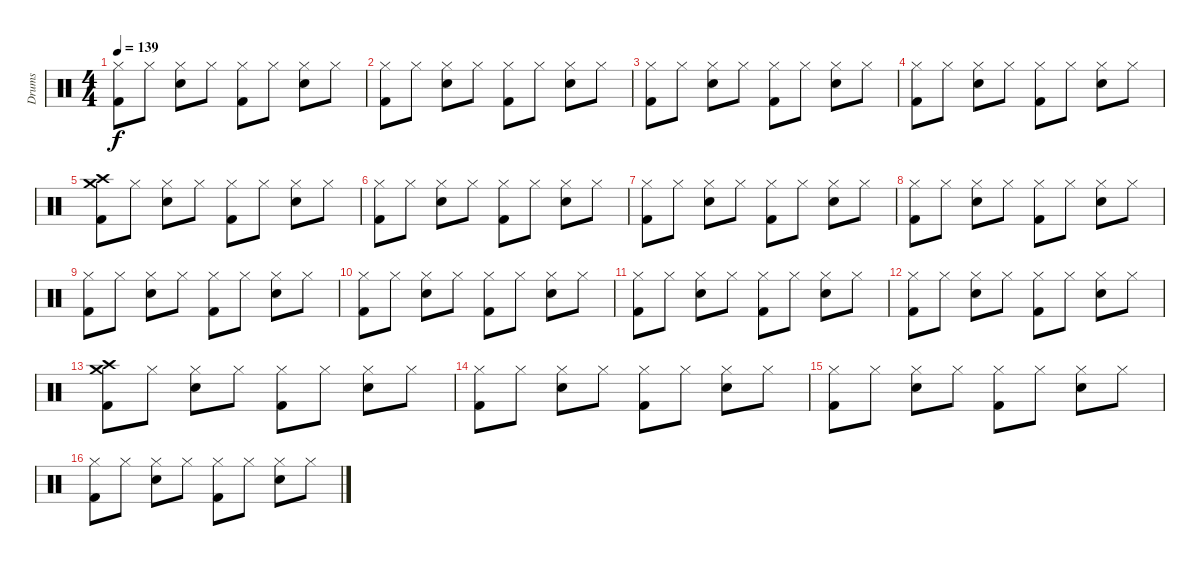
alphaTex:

\track ("Drums" "Drums") {instrument percussion}
\staff {score}
\articulation defaults
\ts (4 4)
\tempo 139
\clef neutral
\ks c
("Hi-Hat (closed)" "Kick (hit) 2").8{dy f} "Hi-Hat (closed)".8 ("Hi-Hat (closed)" "Snare (hit) 2").8 "Hi-Hat (closed)".8 ("Hi-Hat (closed)" "Kick (hit) 2").8 "Hi-Hat (closed)".8 ("Hi-Hat (closed)" "Snare (hit) 2").8 "Hi-Hat (closed)".8 |
("Hi-Hat (closed)" "Kick (hit) 2").8 "Hi-Hat (closed)".8 ("Hi-Hat (closed)" "Snare (hit) 2").8 "Hi-Hat (closed)".8 ("Hi-Hat (closed)" "Kick (hit) 2").8 "Hi-Hat (closed)".8 ("Hi-Hat (closed)" "Snare (hit) 2").8 "Hi-Hat (closed)".8 |
("Hi-Hat (closed)" "Kick (hit) 2").8 "Hi-Hat (closed)".8 ("Hi-Hat (closed)" "Snare (hit) 2").8 "Hi-Hat (closed)".8 ("Hi-Hat (closed)" "Kick (hit) 2").8 "Hi-Hat (closed)".8 ("Hi-Hat (closed)" "Snare (hit) 2").8 "Hi-Hat (closed)".8 |
("Hi-Hat (closed)" "Kick (hit) 2").8 "Hi-Hat (closed)".8 ("Hi-Hat (closed)" "Snare (hit) 2").8 "Hi-Hat (closed)".8 ("Hi-Hat (closed)" "Kick (hit) 2").8 "Hi-Hat (closed)".8 ("Hi-Hat (closed)" "Snare (hit) 2").8 "Hi-Hat (closed)".8 |
("Crash medium (hit)" "Crash high (hit)" "Kick (hit) 2").8 "Hi-Hat (closed)".8 ("Hi-Hat (closed)" "Snare (hit) 2").8 "Hi-Hat (closed)".8 ("Hi-Hat (closed)" "Kick (hit) 2").8 "Hi-Hat (closed)".8 ("Hi-Hat (closed)" "Snare (hit) 2").8 "Hi-Hat (closed)".8 |
("Hi-Hat (closed)" "Kick (hit) 2").8 "Hi-Hat (closed)".8 ("Hi-Hat (closed)" "Snare (hit) 2").8 "Hi-Hat (closed)".8 ("Hi-Hat (closed)" "Kick (hit) 2").8 "Hi-Hat (closed)".8 ("Hi-Hat (closed)" "Snare (hit) 2").8 "Hi-Hat (closed)".8 |
("Hi-Hat (closed)" "Kick (hit) 2").8 "Hi-Hat (closed)".8 ("Hi-Hat (closed)" "Snare (hit) 2").8 "Hi-Hat (closed)".8 ("Hi-Hat (closed)" "Kick (hit) 2").8 "Hi-Hat (closed)".8 ("Hi-Hat (closed)" "Snare (hit) 2").8 "Hi-Hat (closed)".8 |
("Hi-Hat (closed)" "Kick (hit) 2").8 "Hi-Hat (closed)".8 ("Hi-Hat (closed)" "Snare (hit) 2").8 "Hi-Hat (closed)".8 ("Hi-Hat (closed)" "Kick (hit) 2").8 "Hi-Hat (closed)".8 ("Hi-Hat (closed)" "Snare (hit) 2").8 "Hi-Hat (closed)".8 |
("Hi-Hat (closed)" "Kick (hit) 2").8 "Hi-Hat (closed)".8 ("Hi-Hat (closed)" "Snare (hit) 2").8 "Hi-Hat (closed)".8 ("Hi-Hat (closed)" "Kick (hit) 2").8 "Hi-Hat (closed)".8 ("Hi-Hat (closed)" "Snare (hit) 2").8 "Hi-Hat (closed)".8 |
("Hi-Hat (closed)" "Kick (hit) 2").8 "Hi-Hat (closed)".8 ("Hi-Hat (closed)" "Snare (hit) 2").8 "Hi-Hat (closed)".8 ("Hi-Hat (closed)" "Kick (hit) 2").8 "Hi-Hat (closed)".8 ("Hi-Hat (closed)" "Snare (hit) 2").8 "Hi-Hat (closed)".8 |
("Hi-Hat (closed)" "Kick (hit) 2").8 "Hi-Hat (closed)".8 ("Hi-Hat (closed)" "Snare (hit) 2").8 "Hi-Hat (closed)".8 ("Hi-Hat (closed)" "Kick (hit) 2").8 "Hi-Hat (closed)".8 ("Hi-Hat (closed)" "Snare (hit) 2").8 "Hi-Hat (closed)".8 |
("Hi-Hat (closed)" "Kick (hit) 2").8 "Hi-Hat (closed)".8 ("Hi-Hat (closed)" "Snare (hit) 2").8 "Hi-Hat (closed)".8 ("Hi-Hat (closed)" "Kick (hit) 2").8 "Hi-Hat (closed)".8 ("Hi-Hat (closed)" "Snare (hit) 2").8 "Hi-Hat (closed)".8 |
("Crash medium (hit)" "Crash high (hit)" "Kick (hit) 2").8 "Hi-Hat (closed)".8 ("Hi-Hat (closed)" "Snare (hit) 2").8 "Hi-Hat (closed)".8 ("Hi-Hat (closed)" "Kick (hit) 2").8 "Hi-Hat (closed)".8 ("Hi-Hat (closed)" "Snare (hit) 2").8 "Hi-Hat (closed)".8 |
("Hi-Hat (closed)" "Kick (hit) 2").8 "Hi-Hat (closed)".8 ("Hi-Hat (closed)" "Snare (hit) 2").8 "Hi-Hat (closed)".8 ("Hi-Hat (closed)" "Kick (hit) 2").8 "Hi-Hat (closed)".8 ("Hi-Hat (closed)" "Snare (hit) 2").8 "Hi-Hat (closed)".8 |
("Hi-Hat (closed)" "Kick (hit) 2").8 "Hi-Hat (closed)".8 ("Hi-Hat (closed)" "Snare (hit) 2").8 "Hi-Hat (closed)".8 ("Hi-Hat (closed)" "Kick (hit) 2").8 "Hi-Hat (closed)".8 ("Hi-Hat (closed)" "Snare (hit) 2").8 "Hi-Hat (closed)".8 |
("Hi-Hat (closed)" "Kick (hit) 2").8 "Hi-Hat (closed)".8 ("Hi-Hat (closed)" "Snare (hit) 2").8 "Hi-Hat (closed)".8 ("Hi-Hat (closed)" "Kick (hit) 2").8 "Hi-Hat (closed)".8 ("Hi-Hat (closed)" "Snare (hit) 2").8 "Hi-Hat (closed)".8
